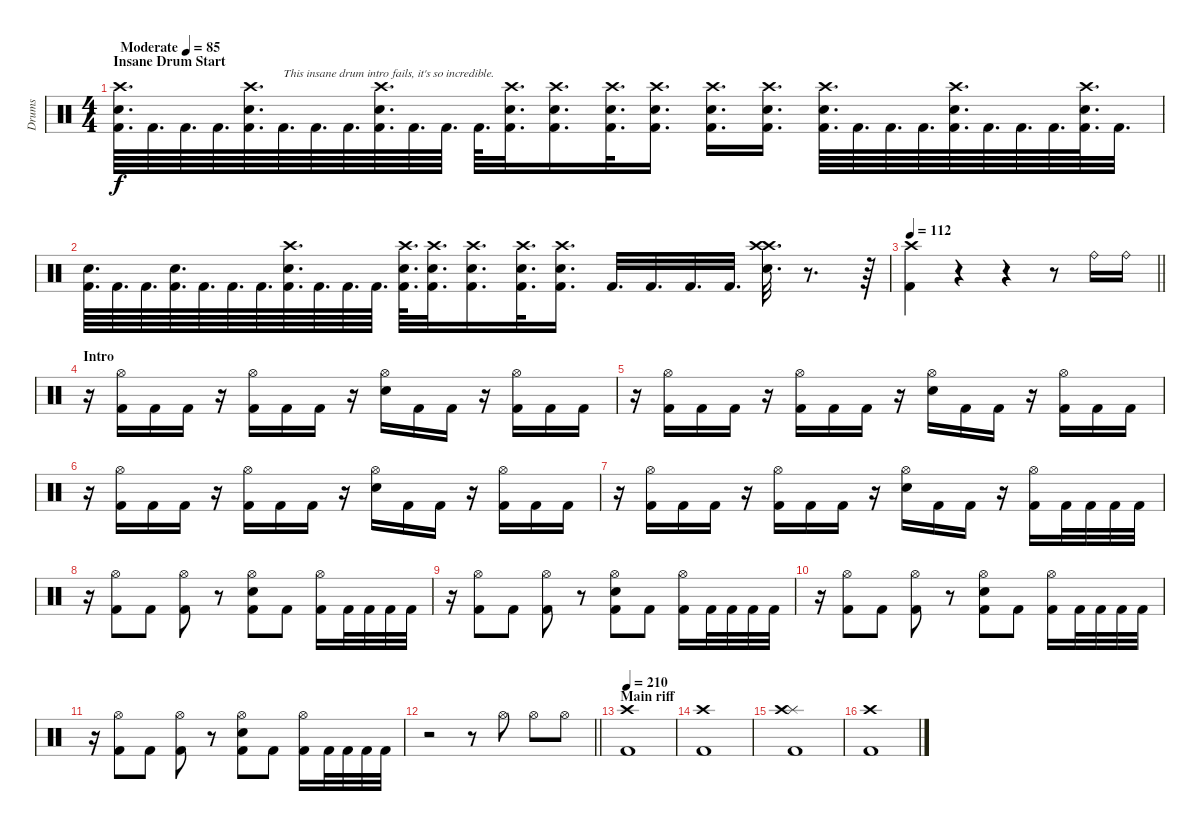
\track ("Drums" "Drums") {instrument percussion}
\staff {score}
\articulation defaults
\ts (4 4)
\section ("" "Insane Drum Start")
\tempo (85 "Moderate")
\clef neutral
\ks c
("Crash high (hit)" "Electric Snare (hit)" "Kick (hit) 2").64{d dy f} "Kick (hit) 2".64{d} "Kick (hit) 2".64{d} "Kick (hit) 2".64{d} ("Crash high (hit)" "Electric Snare (hit)" "Kick (hit) 2").64{d} "Kick (hit) 2".64{d txt "This insane drum intro fails, it's so incredible."} "Kick (hit) 2".64{d} "Kick (hit) 2".64{d} ("Crash high (hit)" "Electric Snare (hit)" "Kick (hit) 2").64{d} "Kick (hit) 2".64{d} "Kick (hit) 2".64{d} "Kick (hit) 2".64{d} ("Crash high (hit)" "Electric Snare (hit)" "Kick (hit) 2").32{d} ("Crash high (hit)" "Electric Snare (hit)" "Kick (hit) 2").16{d} ("Crash high (hit)" "Electric Snare (hit)" "Kick (hit) 2").32{d} ("Crash high (hit)" "Electric Snare (hit)" "Kick (hit) 2").16{d} ("Crash high (hit)" "Electric Snare (hit)" "Kick (hit) 2").16{d} ("Crash high (hit)" "Electric Snare (hit)" "Kick (hit) 2").16{d} ("Crash high (hit)" "Electric Snare (hit)" "Kick (hit) 2").64{d} "Kick (hit) 2".64{d} "Kick (hit) 2".64{d} "Kick (hit) 2".64{d} ("Crash high (hit)" "Electric Snare (hit)" "Kick (hit) 2").64{d} "Kick (hit) 2".64{d} "Kick (hit) 2".64{d} "Kick (hit) 2".64{d} ("Crash high (hit)" "Electric Snare (hit)" "Kick (hit) 2").64{d} "Kick (hit) 2".32{d} |
("Electric Snare (hit)" "Kick (hit) 2").64{d} "Kick (hit) 2".64{d} "Kick (hit) 2".64{d} ("Electric Snare (hit)" "Kick (hit) 2").64{d} "Kick (hit) 2".64{d} "Kick (hit) 2".64{d} "Kick (hit) 2".64{d} ("Crash high (hit)" "Electric Snare (hit)" "Kick (hit) 2").64{d} "Kick (hit) 2".64{d} "Kick (hit) 2".64{d} "Kick (hit) 2".64{d} ("Crash high (hit)" "Electric Snare (hit)" "Kick (hit) 2").64{d} ("Crash high (hit)" "Electric Snare (hit)" "Kick (hit) 2").32{d} ("Crash high (hit)" "Electric Snare (hit)" "Kick (hit) 2").16{d} ("Crash high (hit)" "Electric Snare (hit)" "Kick (hit) 2").32{d} ("Crash high (hit)" "Electric Snare (hit)" "Kick (hit) 2").16{d} "Kick (hit) 2".32{d} "Kick (hit) 2".32{d} "Kick (hit) 2".32{d} "Kick (hit) 2".32{d} ("Crash high (hit)" "Crash high (hit)" "Electric Snare (hit)").32{d} r.8{d} r.64 |
\tempo 112
\barLineRight lightlight
("Crash high (hit)" "Kick (hit) 2").4 r.4 r.4 r.8 "Ride (bell)".16 "Ride (bell)".16 |
\section ("" "Intro")
r.16 ("Hi-Hat (open)" "Kick (hit) 2").16 "Kick (hit) 2".16 "Kick (hit) 2".16 r.16 ("Hi-Hat (open)" "Kick (hit) 2").16 "Kick (hit) 2".16 "Kick (hit) 2".16 r.16 ("Hi-Hat (open)" "Electric Snare (hit)").16 "Kick (hit) 2".16 "Kick (hit) 2".16 r.16 ("Hi-Hat (open)" "Kick (hit) 2").16 "Kick (hit) 2".16 "Kick (hit) 2".16 |
r.16 ("Hi-Hat (open)" "Kick (hit) 2").16 "Kick (hit) 2".16 "Kick (hit) 2".16 r.16 ("Hi-Hat (open)" "Kick (hit) 2").16 "Kick (hit) 2".16 "Kick (hit) 2".16 r.16 ("Hi-Hat (open)" "Electric Snare (hit)").16 "Kick (hit) 2".16 "Kick (hit) 2".16 r.16 ("Hi-Hat (open)" "Kick (hit) 2").16 "Kick (hit) 2".16 "Kick (hit) 2".16 |
r.16 ("Hi-Hat (open)" "Kick (hit) 2").16 "Kick (hit) 2".16 "Kick (hit) 2".16 r.16 ("Hi-Hat (open)" "Kick (hit) 2").16 "Kick (hit) 2".16 "Kick (hit) 2".16 r.16 ("Hi-Hat (open)" "Electric Snare (hit)").16 "Kick (hit) 2".16 "Kick (hit) 2".16 r.16 ("Hi-Hat (open)" "Kick (hit) 2").16 "Kick (hit) 2".16 "Kick (hit) 2".16 |
r.16 ("Hi-Hat (open)" "Kick (hit) 2").16 "Kick (hit) 2".16 "Kick (hit) 2".16 r.16 ("Hi-Hat (open)" "Kick (hit) 2").16 "Kick (hit) 2".16 "Kick (hit) 2".16 r.16 ("Hi-Hat (open)" "Electric Snare (hit)").16 "Kick (hit) 2".16 "Kick (hit) 2".16 r.16 ("Hi-Hat (open)" "Kick (hit) 2").16 "Kick (hit) 2".32 "Kick (hit) 2".32 "Kick (hit) 2".32 "Kick (hit) 2".32 |
r.16 ("Hi-Hat (open)" "Kick (hit) 2").8 "Kick (hit) 2".8 ("Hi-Hat (open)" "Kick (hit) 2").8 r.8 ("Hi-Hat (open)" "Electric Snare (hit)" "Kick (hit) 2").8 "Kick (hit) 2".8 ("Hi-Hat (open)" "Kick (hit) 2").16 "Kick (hit) 2".32 "Kick (hit) 2".32 "Kick (hit) 2".32 "Kick (hit) 2".32 |
r.16 ("Hi-Hat (open)" "Kick (hit) 2").8 "Kick (hit) 2".8 ("Hi-Hat (open)" "Kick (hit) 2").8 r.8 ("Hi-Hat (open)" "Electric Snare (hit)" "Kick (hit) 2").8 "Kick (hit) 2".8 ("Hi-Hat (open)" "Kick (hit) 2").16 "Kick (hit) 2".32 "Kick (hit) 2".32 "Kick (hit) 2".32 "Kick (hit) 2".32 |
r.16 ("Hi-Hat (open)" "Kick (hit) 2").8 "Kick (hit) 2".8 ("Hi-Hat (open)" "Kick (hit) 2").8 r.8 ("Hi-Hat (open)" "Electric Snare (hit)" "Kick (hit) 2").8 "Kick (hit) 2".8 ("Hi-Hat (open)" "Kick (hit) 2").16 "Kick (hit) 2".32 "Kick (hit) 2".32 "Kick (hit) 2".32 "Kick (hit) 2".32 |
r.16 ("Hi-Hat (open)" "Kick (hit) 2").8 "Kick (hit) 2".8 ("Hi-Hat (open)" "Kick (hit) 2").8 r.8 ("Hi-Hat (open)" "Electric Snare (hit)" "Kick (hit) 2").8 "Kick (hit) 2".8 ("Hi-Hat (open)" "Kick (hit) 2").16 "Kick (hit) 2".32 "Kick (hit) 2".32 "Kick (hit) 2".32 "Kick (hit) 2".32 |
\barLineRight lightlight
r.2 r.8 "Hi-Hat (open)".8 "Hi-Hat (open)".8 "Hi-Hat (open)".8 |
\section ("" "Main riff")
\tempo 210
("Crash high (hit)" "Kick (hit) 2").1 |
("Crash high (hit)" "Kick (hit) 2").1 |
("Splash (hit)" "Crash high (hit)" "Kick (hit) 2").1 |
("Crash high (hit)" "Kick (hit) 2").1
